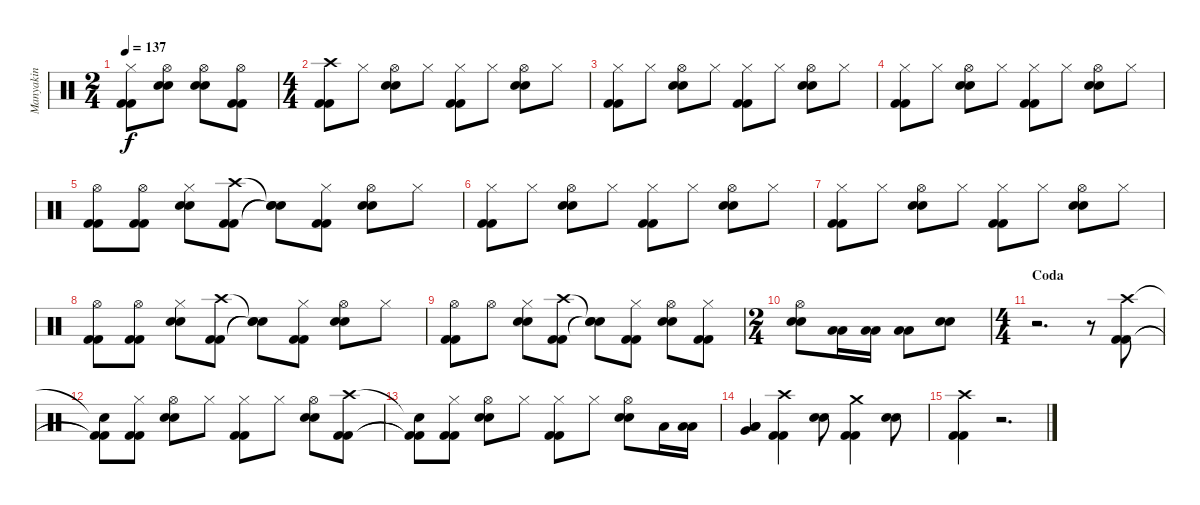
\track ("Manyakin" "Manyakin") {instrument percussion}
\staff {score}
\articulation defaults
\ts (2 4)
\tempo 137
\clef neutral
\ks c
("Hi-Hat (closed)" "Kick (hit) 2" "Kick (hit) 2").8{dy f} ("Hi-Hat (open)" "Electric Snare (hit)" "Electric Snare (hit)").8 ("Hi-Hat (open)" "Electric Snare (hit)" "Electric Snare (hit)").8 ("Hi-Hat (open)" "Kick (hit) 2" "Kick (hit) 2").8 |
\ts (4 4)
("Crash high (hit)" "Kick (hit) 2" "Kick (hit) 2").8 "Hi-Hat (closed)".8 ("Hi-Hat (open)" "Electric Snare (hit)" "Electric Snare (hit)").8 "Hi-Hat (closed)".8 ("Hi-Hat (closed)" "Kick (hit) 2" "Kick (hit) 2").8 "Hi-Hat (closed)".8 ("Hi-Hat (open)" "Electric Snare (hit)" "Electric Snare (hit)").8 "Hi-Hat (closed)".8 |
("Hi-Hat (closed)" "Kick (hit) 2" "Kick (hit) 2").8 "Hi-Hat (closed)".8 ("Hi-Hat (open)" "Electric Snare (hit)" "Electric Snare (hit)").8 "Hi-Hat (closed)".8 ("Hi-Hat (closed)" "Kick (hit) 2" "Kick (hit) 2").8 "Hi-Hat (closed)".8 ("Hi-Hat (open)" "Electric Snare (hit)" "Electric Snare (hit)").8 "Hi-Hat (closed)".8 |
("Hi-Hat (closed)" "Kick (hit) 2" "Kick (hit) 2").8 "Hi-Hat (closed)".8 ("Hi-Hat (open)" "Electric Snare (hit)" "Electric Snare (hit)").8 "Hi-Hat (closed)".8 ("Hi-Hat (closed)" "Kick (hit) 2" "Kick (hit) 2").8 "Hi-Hat (closed)".8 ("Hi-Hat (open)" "Electric Snare (hit)" "Electric Snare (hit)").8 "Hi-Hat (closed)".8 |
("Hi-Hat (open)" "Kick (hit) 2" "Kick (hit) 2").8 ("Hi-Hat (open)" "Kick (hit) 2" "Kick (hit) 2").8 ("Hi-Hat (closed)" "Electric Snare (hit)" "Electric Snare (hit)").8 ("Crash high (hit)" "Kick (hit) 2" "Kick (hit) 2").8 ("Snare (hit)"{t} "Snare (hit)"{t} "Snare (hit)"{t}).8 ("Hi-Hat (closed)" "Kick (hit) 2" "Kick (hit) 2").8 ("Hi-Hat (open)" "Electric Snare (hit)" "Electric Snare (hit)").8 "Hi-Hat (closed)".8 |
("Hi-Hat (closed)" "Kick (hit) 2" "Kick (hit) 2").8 "Hi-Hat (closed)".8 ("Hi-Hat (open)" "Electric Snare (hit)" "Electric Snare (hit)").8 "Hi-Hat (closed)".8 ("Hi-Hat (closed)" "Kick (hit) 2" "Kick (hit) 2").8 "Hi-Hat (closed)".8 ("Hi-Hat (open)" "Electric Snare (hit)" "Electric Snare (hit)").8 "Hi-Hat (closed)".8 |
("Hi-Hat (closed)" "Kick (hit) 2" "Kick (hit) 2").8 "Hi-Hat (closed)".8 ("Hi-Hat (open)" "Electric Snare (hit)" "Electric Snare (hit)").8 "Hi-Hat (closed)".8 ("Hi-Hat (closed)" "Kick (hit) 2" "Kick (hit) 2").8 "Hi-Hat (closed)".8 ("Hi-Hat (open)" "Electric Snare (hit)" "Electric Snare (hit)").8 "Hi-Hat (closed)".8 |
("Hi-Hat (open)" "Kick (hit) 2" "Kick (hit) 2").8 ("Hi-Hat (open)" "Kick (hit) 2" "Kick (hit) 2").8 ("Hi-Hat (closed)" "Electric Snare (hit)" "Electric Snare (hit)").8 ("Crash high (hit)" "Kick (hit) 2" "Kick (hit) 2").8 ("Snare (hit)"{t} "Snare (hit)"{t} "Snare (hit)"{t}).8 ("Hi-Hat (closed)" "Kick (hit) 2" "Kick (hit) 2").8 ("Hi-Hat (open)" "Electric Snare (hit)" "Electric Snare (hit)").8 "Hi-Hat (closed)".8 |
("Hi-Hat (open)" "Kick (hit) 2" "Kick (hit) 2").8 "Hi-Hat (open)".8 ("Hi-Hat (closed)" "Electric Snare (hit)" "Electric Snare (hit)").8 ("Crash high (hit)" "Kick (hit) 2" "Kick (hit) 2").8 ("Snare (hit)"{t} "Snare (hit)"{t} "Snare (hit)"{t}).8 ("Hi-Hat (closed)" "Kick (hit) 2" "Kick (hit) 2").8 ("Hi-Hat (open)" "Electric Snare (hit)" "Electric Snare (hit)").8 ("Hi-Hat (closed)" "Kick (hit) 2" "Kick (hit) 2").8 |
\ts (2 4)
("Hi-Hat (open)" "Electric Snare (hit)" "Electric Snare (hit)").8 ("Low Tom (hit)" "Low Tom (hit)").16 ("Low Tom (hit)" "Low Tom (hit)").16 ("Low Tom (hit)" "Low Tom (hit)").8 ("Electric Snare (hit)" "Electric Snare (hit)").8 |
\ts (4 4)
\section ("" "Coda")
r.2{d} r.8 ("Crash high (hit)" "Kick (hit) 2" "Kick (hit) 2").8 |
("Snare (hit)"{t} "Kick (hit) 2"{t} "Kick (hit) 2"{t}).8 ("Hi-Hat (closed)" "Kick (hit) 2" "Kick (hit) 2").8 ("Hi-Hat (open)" "Electric Snare (hit)" "Electric Snare (hit)").8 "Hi-Hat (closed)".8 ("Hi-Hat (closed)" "Kick (hit) 2" "Kick (hit) 2").8 "Hi-Hat (closed)".8 ("Hi-Hat (open)" "Electric Snare (hit)" "Electric Snare (hit)").8 ("Crash high (hit)" "Kick (hit) 2" "Kick (hit) 2").8 |
("Snare (hit)"{t} "Kick (hit) 2"{t} "Kick (hit) 2"{t}).8 ("Hi-Hat (closed)" "Kick (hit) 2" "Kick (hit) 2").8 ("Hi-Hat (open)" "Electric Snare (hit)" "Electric Snare (hit)").8 "Hi-Hat (closed)".8 ("Hi-Hat (closed)" "Kick (hit) 2" "Kick (hit) 2").8 "Hi-Hat (closed)".8 ("Hi-Hat (open)" "Electric Snare (hit)" "Electric Snare (hit)").8 "Low Tom (hit)".16 ("Low Tom (hit)" "Low Tom (hit)").16 |
("Low Tom (hit)" "Low Tom (hit)" "Very Low Tom (hit)").4 ("Crash high (hit)" "Kick (hit) 2" "Kick (hit) 2").4 ("Electric Snare (hit)" "Electric Snare (hit)").8 ("Crash medium (hit)" "Kick (hit) 2" "Kick (hit) 2").4 ("Electric Snare (hit)" "Electric Snare (hit)").8 |
("Crash high (hit)" "Kick (hit) 2" "Kick (hit) 2").4 r.2{d}
